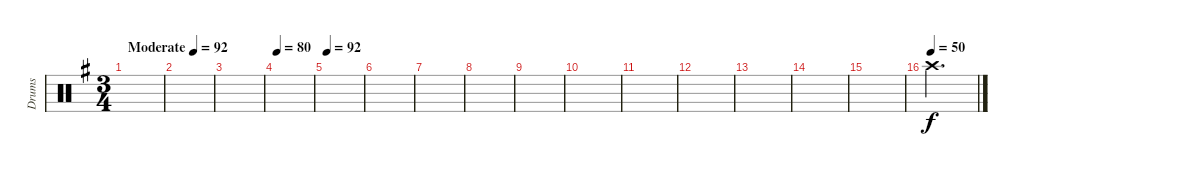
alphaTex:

\track ("Drums" "Drums") {instrument percussion}
\staff {score}
\articulation defaults
\ts (3 4)
\tempo (92 "Moderate")
\clef neutral
\ks g
|
|
|
\tempo 80
|
\tempo 92
|
|
|
|
|
|
|
|
|
|
|
\tempo (50)
"Crash high (hit)".2{d}
